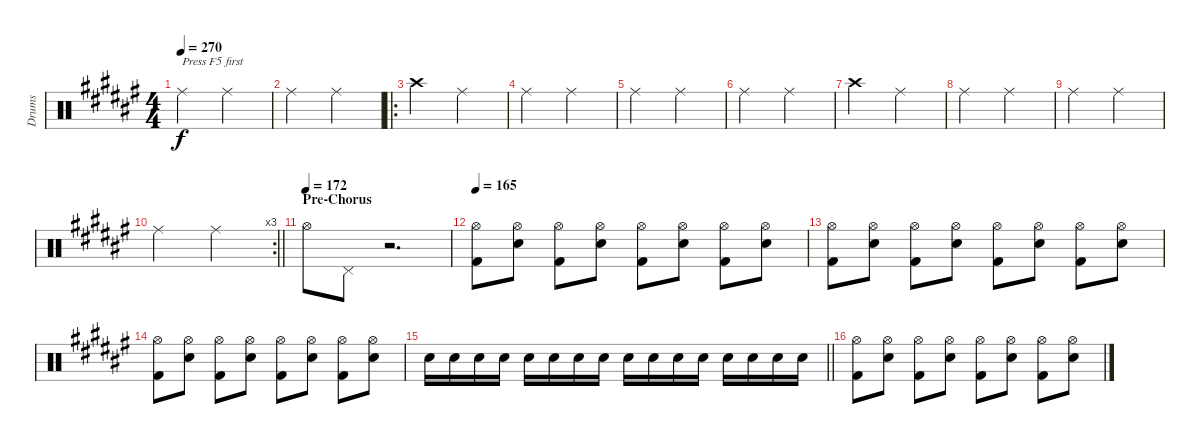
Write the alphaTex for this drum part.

\track ("Drums" "Drums") {instrument percussion}
\staff {score}
\articulation defaults
\ts (4 4)
\tempo 270
\clef neutral
\ks f# "Ride (middle)".2{txt "Press F5 first" dy f} "Ride (middle)".2
|
"Ride (middle)".2 "Ride (middle)".2 |
\ro
\ks d#minor "Crash high (hit)".2 "Ride (middle)".2
|
"Ride (middle)".2 "Ride (middle)".2 |
"Ride (middle)".2 "Ride (middle)".2 |
"Ride (middle)".2 "Ride (middle)".2 |
"Crash high (hit)".2 "Ride (middle)".2 |
"Ride (middle)".2 "Ride (middle)".2 |
"Ride (middle)".2 "Ride (middle)".2 |
\rc 3
\barLineRight lightlight "Ride (middle)".2 "Ride (middle)".2
|
\section ("" "Pre-Chorus")
\tempo 172
\ks f# "Hi-Hat (open)".8 "Pedal Hi-Hat (hit)".8
r.2{d} |
\tempo 165
\ks d#minor
("Hi-Hat (open)" "Kick (hit) 2").8 ("Hi-Hat (open)" "Electric Snare (hit)").8 ("Hi-Hat (open)" "Kick (hit) 2").8 ("Hi-Hat (open)" "Electric Snare (hit)").8 ("Hi-Hat (open)" "Kick (hit) 2").8 ("Hi-Hat (open)" "Electric Snare (hit)").8 ("Hi-Hat (open)" "Kick (hit) 2").8 ("Hi-Hat (open)" "Electric Snare (hit)").8 |
("Hi-Hat (open)" "Kick (hit) 2").8 ("Hi-Hat (open)" "Electric Snare (hit)").8 ("Hi-Hat (open)" "Kick (hit) 2").8 ("Hi-Hat (open)" "Electric Snare (hit)").8 ("Hi-Hat (open)" "Kick (hit) 2").8 ("Hi-Hat (open)" "Electric Snare (hit)").8 ("Hi-Hat (open)" "Kick (hit) 2").8 ("Hi-Hat (open)" "Electric Snare (hit)").8 |
("Hi-Hat (open)" "Kick (hit) 2").8 ("Hi-Hat (open)" "Electric Snare (hit)").8 ("Hi-Hat (open)" "Kick (hit) 2").8 ("Hi-Hat (open)" "Electric Snare (hit)").8 ("Hi-Hat (open)" "Kick (hit) 2").8 ("Hi-Hat (open)" "Electric Snare (hit)").8 ("Hi-Hat (open)" "Kick (hit) 2").8 ("Hi-Hat (open)" "Electric Snare (hit)").8 |
\barLineRight lightlight "Electric Snare (hit)".16 "Electric Snare (hit)".16 "Electric Snare (hit)".16 "Electric Snare (hit)".16 "Electric Snare (hit)".16 "Electric Snare (hit)".16 "Electric Snare (hit)".16 "Electric Snare (hit)".16 "Electric Snare (hit)".16 "Electric Snare (hit)".16 "Electric Snare (hit)".16 "Electric Snare (hit)".16 "Electric Snare (hit)".16 "Electric Snare (hit)".16 "Electric Snare (hit)".16 "Electric Snare (hit)".16
|
("Hi-Hat (open)" "Kick (hit) 2").8 ("Hi-Hat (open)" "Electric Snare (hit)").8 ("Hi-Hat (open)" "Kick (hit) 2").8 ("Hi-Hat (open)" "Electric Snare (hit)").8 ("Hi-Hat (open)" "Kick (hit) 2").8 ("Hi-Hat (open)" "Electric Snare (hit)").8 ("Hi-Hat (open)" "Kick (hit) 2").8 ("Hi-Hat (open)" "Electric Snare (hit)").8
